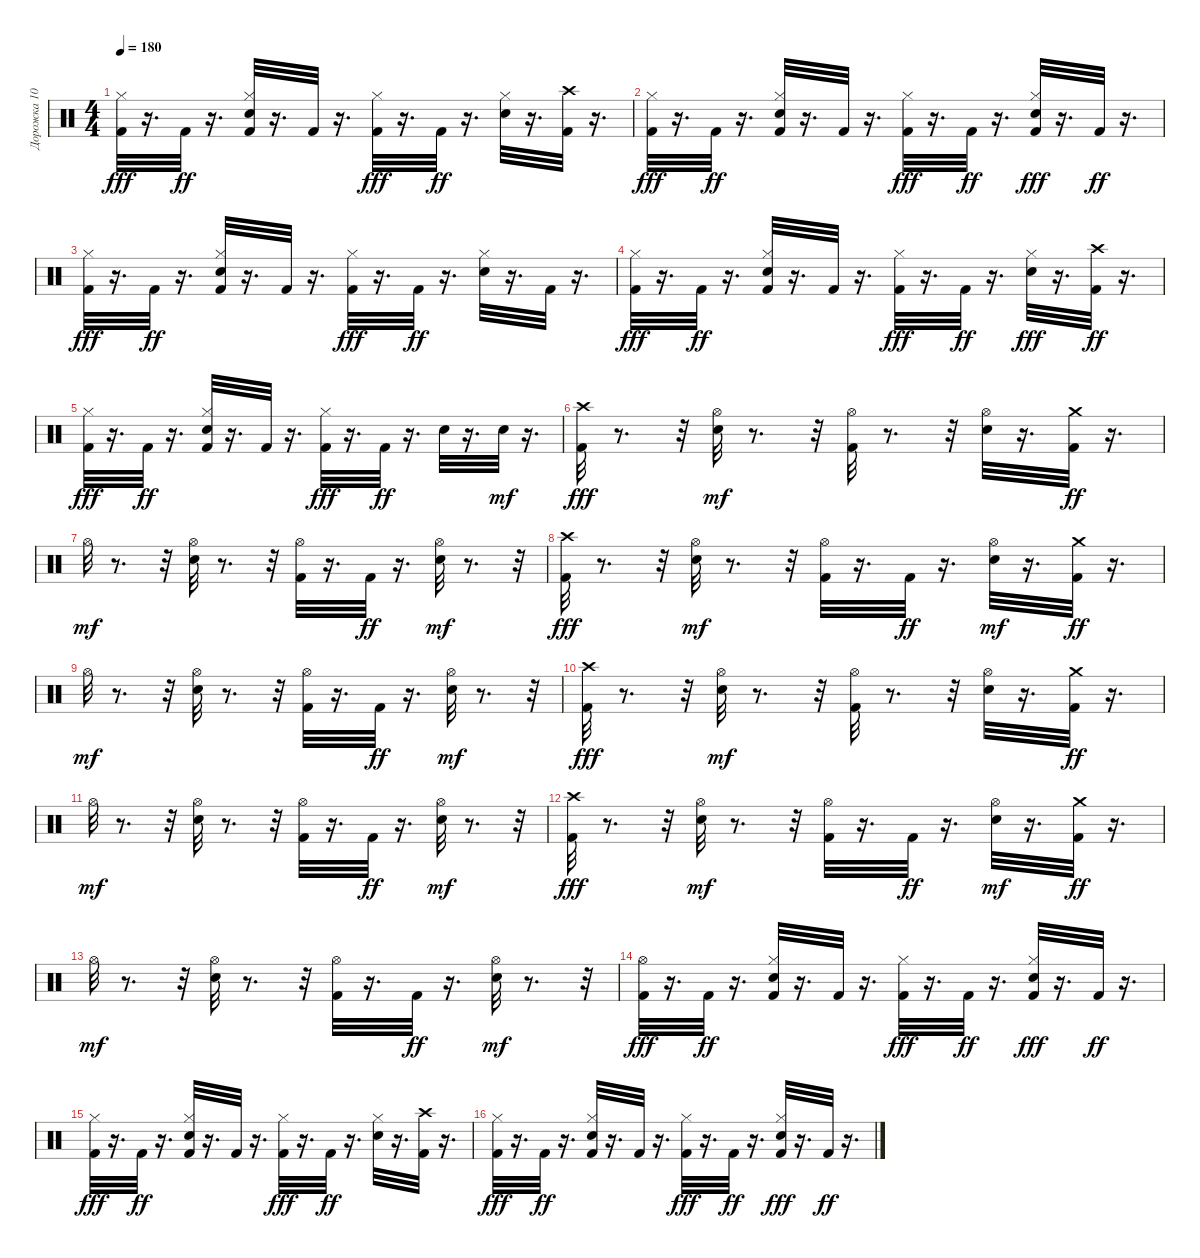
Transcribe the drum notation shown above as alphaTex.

\track ("Дорожка 10" "Дорожка 10") {instrument percussion}
\staff {score}
\articulation defaults
\ts (4 4)
\tempo 180
\clef neutral
\ks c
("Kick (hit) 2" "Hi-Hat (closed)").32{dy fff} r.16{d} "Kick (hit) 2".32{dy ff} r.16{d} ("Kick (hit) 2" "Snare (hit) 2" "Hi-Hat (closed)").32 r.16{d} "Kick (hit) 2".32 r.16{d} ("Kick (hit) 2" "Hi-Hat (closed)").32{dy fff} r.16{d} "Kick (hit) 2".32{dy ff} r.16{d} ("Snare (hit) 2" "Hi-Hat (closed)").32 r.16{d} ("Crash high (hit)" "Kick (hit) 2").32 r.16{d} |
("Hi-Hat (closed)" "Kick (hit) 2").32{dy fff} r.16{d} "Kick (hit) 2".32{dy ff} r.16{d} ("Kick (hit) 2" "Snare (hit) 2" "Hi-Hat (closed)").32 r.16{d} "Kick (hit) 2".32 r.16{d} ("Kick (hit) 2" "Hi-Hat (closed)").32{dy fff} r.16{d} "Kick (hit) 2".32{dy ff} r.16{d} ("Kick (hit) 2" "Snare (hit) 2" "Hi-Hat (closed)").32{dy fff} r.16{d} "Kick (hit) 2".32{dy ff} r.16{d} |
("Kick (hit) 2" "Hi-Hat (closed)").32{dy fff} r.16{d} "Kick (hit) 2".32{dy ff} r.16{d} ("Kick (hit) 2" "Snare (hit) 2" "Hi-Hat (closed)").32 r.16{d} "Kick (hit) 2".32 r.16{d} ("Kick (hit) 2" "Hi-Hat (closed)").32{dy fff} r.16{d} "Kick (hit) 2".32{dy ff} r.16{d} ("Snare (hit) 2" "Hi-Hat (closed)").32 r.16{d} "Kick (hit) 2".32 r.16{d} |
("Hi-Hat (closed)" "Kick (hit) 2").32{dy fff} r.16{d} "Kick (hit) 2".32{dy ff} r.16{d} ("Kick (hit) 2" "Snare (hit) 2" "Hi-Hat (closed)").32 r.16{d} "Kick (hit) 2".32 r.16{d} ("Kick (hit) 2" "Hi-Hat (closed)").32{dy fff} r.16{d} "Kick (hit) 2".32{dy ff} r.16{d} ("Snare (hit) 2" "Hi-Hat (closed)").32{dy fff} r.16{d} ("Kick (hit) 2" "Crash high (hit)").32{dy ff} r.16{d} |
("Kick (hit) 2" "Hi-Hat (closed)").32{dy fff} r.16{d} "Kick (hit) 2".32{dy ff} r.16{d} ("Kick (hit) 2" "Snare (hit) 2" "Hi-Hat (closed)").32 r.16{d} "Kick (hit) 2".32 r.16{d} ("Kick (hit) 2" "Hi-Hat (closed)").32{dy fff} r.16{d} "Kick (hit) 2".32{dy ff} r.16{d} "Snare (hit) 2".32 r.16{d} "Snare (hit) 2".32{dy mf} r.16{d} |
("Crash high (hit)" "Kick (hit) 2").32{dy fff} r.8{d} r.32 ("Snare (hit) 2" "Hi-Hat (open)").32{dy mf} r.8{d} r.32 ("Kick (hit) 2" "Hi-Hat (open)").32 r.8{d} r.32 ("Snare (hit) 2" "Hi-Hat (open)").32 r.16{d} ("Kick (hit) 2" "Crash medium (hit)").32{dy ff} r.16{d} |
"Hi-Hat (open)".32{dy mf} r.8{d} r.32 ("Snare (hit) 2" "Hi-Hat (open)").32 r.8{d} r.32 ("Kick (hit) 2" "Hi-Hat (open)").32 r.16{d} "Kick (hit) 2".32{dy ff} r.16{d} ("Snare (hit) 2" "Hi-Hat (open)").32{dy mf} r.8{d} r.32 |
("Crash high (hit)" "Kick (hit) 2").32{dy fff} r.8{d} r.32 ("Snare (hit) 2" "Hi-Hat (open)").32{dy mf} r.8{d} r.32 ("Kick (hit) 2" "Hi-Hat (open)").32 r.16{d} "Kick (hit) 2".32{dy ff} r.16{d} ("Snare (hit) 2" "Hi-Hat (open)").32{dy mf} r.16{d} ("Kick (hit) 2" "Crash medium (hit)").32{dy ff} r.16{d} |
"Hi-Hat (open)".32{dy mf} r.8{d} r.32 ("Snare (hit) 2" "Hi-Hat (open)").32 r.8{d} r.32 ("Kick (hit) 2" "Hi-Hat (open)").32 r.16{d} "Kick (hit) 2".32{dy ff} r.16{d} ("Snare (hit) 2" "Hi-Hat (open)").32{dy mf} r.8{d} r.32 |
("Crash high (hit)" "Kick (hit) 2").32{dy fff} r.8{d} r.32 ("Snare (hit) 2" "Hi-Hat (open)").32{dy mf} r.8{d} r.32 ("Kick (hit) 2" "Hi-Hat (open)").32 r.8{d} r.32 ("Snare (hit) 2" "Hi-Hat (open)").32 r.16{d} ("Kick (hit) 2" "Crash medium (hit)").32{dy ff} r.16{d} |
"Hi-Hat (open)".32{dy mf} r.8{d} r.32 ("Snare (hit) 2" "Hi-Hat (open)").32 r.8{d} r.32 ("Kick (hit) 2" "Hi-Hat (open)").32 r.16{d} "Kick (hit) 2".32{dy ff} r.16{d} ("Snare (hit) 2" "Hi-Hat (open)").32{dy mf} r.8{d} r.32 |
("Crash high (hit)" "Kick (hit) 2").32{dy fff} r.8{d} r.32 ("Snare (hit) 2" "Hi-Hat (open)").32{dy mf} r.8{d} r.32 ("Kick (hit) 2" "Hi-Hat (open)").32 r.16{d} "Kick (hit) 2".32{dy ff} r.16{d} ("Snare (hit) 2" "Hi-Hat (open)").32{dy mf} r.16{d} ("Kick (hit) 2" "Crash medium (hit)").32{dy ff} r.16{d} |
"Hi-Hat (open)".32{dy mf} r.8{d} r.32 ("Snare (hit) 2" "Hi-Hat (open)").32 r.8{d} r.32 ("Kick (hit) 2" "Hi-Hat (open)").32 r.16{d} "Kick (hit) 2".32{dy ff} r.16{d} ("Snare (hit) 2" "Hi-Hat (open)").32{dy mf} r.8{d} r.32 |
("Hi-Hat (open)" "Kick (hit) 2").32{dy fff} r.16{d} "Kick (hit) 2".32{dy ff} r.16{d} ("Kick (hit) 2" "Snare (hit) 2" "Hi-Hat (closed)").32 r.16{d} "Kick (hit) 2".32 r.16{d} ("Kick (hit) 2" "Hi-Hat (closed)").32{dy fff} r.16{d} "Kick (hit) 2".32{dy ff} r.16{d} ("Kick (hit) 2" "Snare (hit) 2" "Hi-Hat (closed)").32{dy fff} r.16{d} "Kick (hit) 2".32{dy ff} r.16{d} |
("Kick (hit) 2" "Hi-Hat (closed)").32{dy fff} r.16{d} "Kick (hit) 2".32{dy ff} r.16{d} ("Kick (hit) 2" "Snare (hit) 2" "Hi-Hat (closed)").32 r.16{d} "Kick (hit) 2".32 r.16{d} ("Kick (hit) 2" "Hi-Hat (closed)").32{dy fff} r.16{d} "Kick (hit) 2".32{dy ff} r.16{d} ("Snare (hit) 2" "Hi-Hat (closed)").32 r.16{d} ("Crash high (hit)" "Kick (hit) 2").32 r.16{d} |
("Hi-Hat (closed)" "Kick (hit) 2").32{dy fff} r.16{d} "Kick (hit) 2".32{dy ff} r.16{d} ("Kick (hit) 2" "Snare (hit) 2" "Hi-Hat (closed)").32 r.16{d} "Kick (hit) 2".32 r.16{d} ("Kick (hit) 2" "Hi-Hat (closed)").32{dy fff} r.16{d} "Kick (hit) 2".32{dy ff} r.16{d} ("Kick (hit) 2" "Snare (hit) 2" "Hi-Hat (closed)").32{dy fff} r.16{d} "Kick (hit) 2".32{dy ff} r.16{d}
